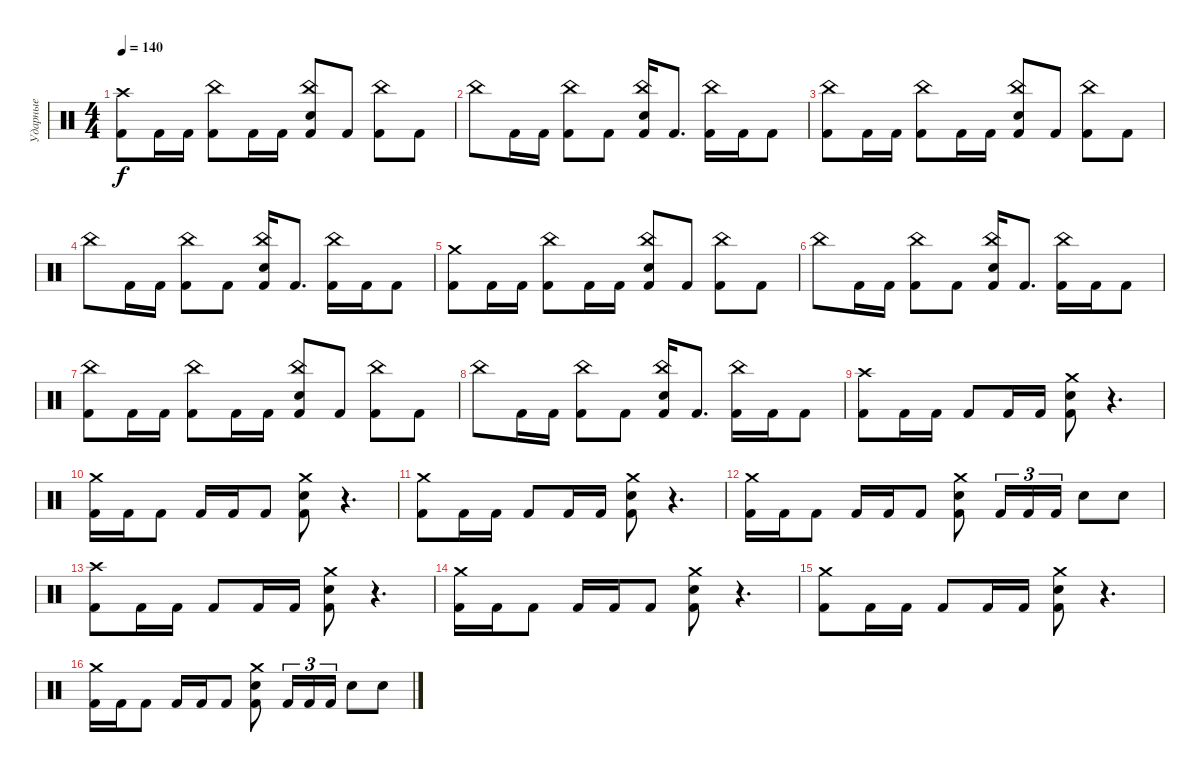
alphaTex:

\track ("Ударные" "Ударные") {instrument percussion}
\staff {score}
\articulation defaults
\ts (4 4)
\tempo 140
\clef neutral
\ks c
("Crash high (hit)" "Kick (hit) 2").8{dy f} "Kick (hit) 2".16 "Kick (hit) 2".16 ("China (hit)" "Kick (hit) 2").8 "Kick (hit) 2".16 "Kick (hit) 2".16 ("China (hit)" "Electric Snare (hit)" "Kick (hit) 2").8 "Kick (hit) 2".8 ("China (hit)" "Kick (hit) 2").8 "Kick (hit) 2".8 |
"China (hit)".8 "Kick (hit) 2".16 "Kick (hit) 2".16 ("China (hit)" "Kick (hit) 2").8 "Kick (hit) 2".8 ("China (hit)" "Electric Snare (hit)" "Kick (hit) 2").16 "Kick (hit) 2".8{d} ("China (hit)" "Kick (hit) 2").16 "Kick (hit) 2".16 "Kick (hit) 2".8 |
("China (hit)" "Kick (hit) 2").8 "Kick (hit) 2".16 "Kick (hit) 2".16 ("China (hit)" "Kick (hit) 2").8 "Kick (hit) 2".16 "Kick (hit) 2".16 ("China (hit)" "Electric Snare (hit)" "Kick (hit) 2").8 "Kick (hit) 2".8 ("China (hit)" "Kick (hit) 2").8 "Kick (hit) 2".8 |
"China (hit)".8 "Kick (hit) 2".16 "Kick (hit) 2".16 ("China (hit)" "Kick (hit) 2").8 "Kick (hit) 2".8 ("China (hit)" "Electric Snare (hit)" "Kick (hit) 2").16 "Kick (hit) 2".8{d} ("China (hit)" "Kick (hit) 2").16 "Kick (hit) 2".16 "Kick (hit) 2".8 |
("Crash medium (hit)" "Kick (hit) 2").8 "Kick (hit) 2".16 "Kick (hit) 2".16 ("China (hit)" "Kick (hit) 2").8 "Kick (hit) 2".16 "Kick (hit) 2".16 ("China (hit)" "Electric Snare (hit)" "Kick (hit) 2").8 "Kick (hit) 2".8 ("China (hit)" "Kick (hit) 2").8 "Kick (hit) 2".8 |
"China (hit)".8 "Kick (hit) 2".16 "Kick (hit) 2".16 ("China (hit)" "Kick (hit) 2").8 "Kick (hit) 2".8 ("China (hit)" "Electric Snare (hit)" "Kick (hit) 2").16 "Kick (hit) 2".8{d} ("China (hit)" "Kick (hit) 2").16 "Kick (hit) 2".16 "Kick (hit) 2".8 |
("China (hit)" "Kick (hit) 2").8 "Kick (hit) 2".16 "Kick (hit) 2".16 ("China (hit)" "Kick (hit) 2").8 "Kick (hit) 2".16 "Kick (hit) 2".16 ("China (hit)" "Electric Snare (hit)" "Kick (hit) 2").8 "Kick (hit) 2".8 ("China (hit)" "Kick (hit) 2").8 "Kick (hit) 2".8 |
"China (hit)".8 "Kick (hit) 2".16 "Kick (hit) 2".16 ("China (hit)" "Kick (hit) 2").8 "Kick (hit) 2".8 ("China (hit)" "Electric Snare (hit)" "Kick (hit) 2").16 "Kick (hit) 2".8{d} ("China (hit)" "Kick (hit) 2").16 "Kick (hit) 2".16 "Kick (hit) 2".8 |
("Crash high (hit)" "Kick (hit) 2").8 "Kick (hit) 2".16 "Kick (hit) 2".16 "Kick (hit) 2".8 "Kick (hit) 2".16 "Kick (hit) 2".16 ("Crash medium (hit)" "Electric Snare (hit)" "Kick (hit) 2").8 r.4{d} |
("Crash medium (hit)" "Kick (hit) 2").16 "Kick (hit) 2".16 "Kick (hit) 2".8 "Kick (hit) 2".16 "Kick (hit) 2".16 "Kick (hit) 2".8 ("Crash medium (hit)" "Electric Snare (hit)" "Kick (hit) 2").8 r.4{d} |
("Crash medium (hit)" "Kick (hit) 2").8 "Kick (hit) 2".16 "Kick (hit) 2".16 "Kick (hit) 2".8 "Kick (hit) 2".16 "Kick (hit) 2".16 ("Crash medium (hit)" "Electric Snare (hit)" "Kick (hit) 2").8 r.4{d} |
("Crash medium (hit)" "Kick (hit) 2").16 "Kick (hit) 2".16 "Kick (hit) 2".8 "Kick (hit) 2".16 "Kick (hit) 2".16 "Kick (hit) 2".8 ("Crash medium (hit)" "Electric Snare (hit)" "Kick (hit) 2").8 "Kick (hit) 2".16{tu (3 2)} "Kick (hit) 2".16{tu (3 2)} "Kick (hit) 2".16{tu (3 2)} "Electric Snare (hit)".8 "Electric Snare (hit)".8 |
("Crash high (hit)" "Kick (hit) 2").8 "Kick (hit) 2".16 "Kick (hit) 2".16 "Kick (hit) 2".8 "Kick (hit) 2".16 "Kick (hit) 2".16 ("Crash medium (hit)" "Electric Snare (hit)" "Kick (hit) 2").8 r.4{d} |
("Crash medium (hit)" "Kick (hit) 2").16 "Kick (hit) 2".16 "Kick (hit) 2".8 "Kick (hit) 2".16 "Kick (hit) 2".16 "Kick (hit) 2".8 ("Crash medium (hit)" "Electric Snare (hit)" "Kick (hit) 2").8 r.4{d} |
("Crash medium (hit)" "Kick (hit) 2").8 "Kick (hit) 2".16 "Kick (hit) 2".16 "Kick (hit) 2".8 "Kick (hit) 2".16 "Kick (hit) 2".16 ("Crash medium (hit)" "Electric Snare (hit)" "Kick (hit) 2").8 r.4{d} |
("Crash medium (hit)" "Kick (hit) 2").16 "Kick (hit) 2".16 "Kick (hit) 2".8 "Kick (hit) 2".16 "Kick (hit) 2".16 "Kick (hit) 2".8 ("Crash medium (hit)" "Electric Snare (hit)" "Kick (hit) 2").8 "Kick (hit) 2".16{tu (3 2)} "Kick (hit) 2".16{tu (3 2)} "Kick (hit) 2".16{tu (3 2)} "Electric Snare (hit)".8 "Electric Snare (hit)".8
